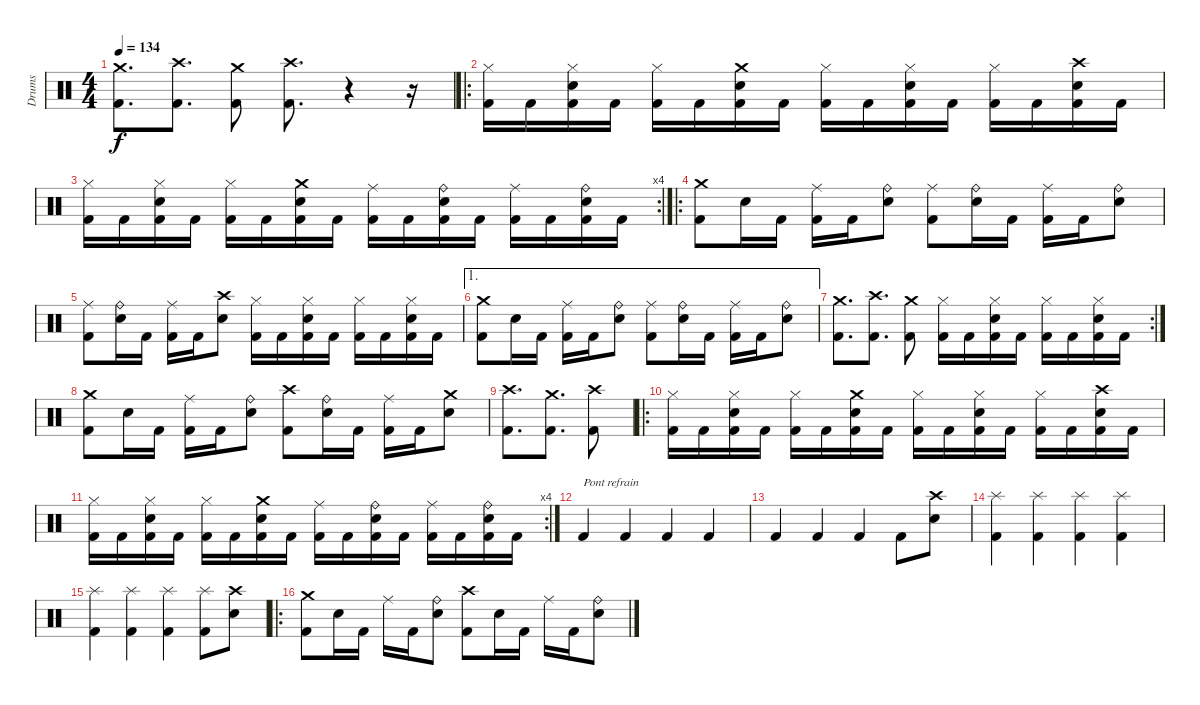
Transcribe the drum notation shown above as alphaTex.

\track ("Drums" "Drums") {instrument percussion}
\staff {score}
\articulation defaults
\ts (4 4)
\tempo 134
\clef neutral
\ks c
("Crash medium (hit)" "Kick (hit) 2").8{d dy f} ("Crash high (hit)" "Kick (hit) 2").8{d} ("Crash medium (hit)" "Kick (hit) 2").8 ("Crash high (hit)" "Kick (hit) 2").8{d} r.4 r.16 |
\ro
("Hi-Hat (closed)" "Kick (hit) 2").16 "Kick (hit) 2".16 ("Hi-Hat (closed)" "Electric Snare (hit)" "Kick (hit) 2").16 "Kick (hit) 2".16 ("Hi-Hat (closed)" "Kick (hit) 2").16 "Kick (hit) 2".16 ("Crash medium (hit)" "Electric Snare (hit)" "Kick (hit) 2").16 "Kick (hit) 2".16 ("Hi-Hat (closed)" "Kick (hit) 2").16 "Kick (hit) 2".16 ("Hi-Hat (closed)" "Electric Snare (hit)" "Kick (hit) 2").16 "Kick (hit) 2".16 ("Hi-Hat (closed)" "Kick (hit) 2").16 "Kick (hit) 2".16 ("Crash high (hit)" "Electric Snare (hit)" "Kick (hit) 2").16 "Kick (hit) 2".16 |
\rc 4
("Hi-Hat (closed)" "Kick (hit) 2").16 "Kick (hit) 2".16 ("Hi-Hat (closed)" "Electric Snare (hit)" "Kick (hit) 2").16 "Kick (hit) 2".16 ("Hi-Hat (closed)" "Kick (hit) 2").16 "Kick (hit) 2".16 ("Crash medium (hit)" "Electric Snare (hit)" "Kick (hit) 2").16 "Kick (hit) 2".16 ("Ride (middle)" "Kick (hit) 2").16 "Kick (hit) 2".16 ("Ride (bell)" "Electric Snare (hit)" "Kick (hit) 2").16 "Kick (hit) 2".16 ("Ride (middle)" "Kick (hit) 2").16 "Kick (hit) 2".16 ("Ride (bell)" "Electric Snare (hit)" "Kick (hit) 2").16 "Kick (hit) 2".16 |
\ro
("Crash medium (hit)" "Kick (hit) 2").8 "Electric Snare (hit)".16 "Kick (hit) 2".16 ("Ride (middle)" "Kick (hit) 2").16 "Kick (hit) 2".16 ("Ride (bell)" "Electric Snare (hit)").8 ("Ride (middle)" "Kick (hit) 2").8 ("Ride (bell)" "Electric Snare (hit)").16 "Kick (hit) 2".16 ("Ride (middle)" "Kick (hit) 2").16 "Kick (hit) 2".16 ("Ride (bell)" "Electric Snare (hit)").8 |
("Ride (middle)" "Kick (hit) 2").8 ("Ride (bell)" "Electric Snare (hit)").16 "Kick (hit) 2".16 ("Ride (middle)" "Kick (hit) 2").16 "Kick (hit) 2".16 ("Crash high (hit)" "Electric Snare (hit)").8 ("Hi-Hat (closed)" "Kick (hit) 2").16 "Kick (hit) 2".16 ("Hi-Hat (closed)" "Electric Snare (hit)" "Kick (hit) 2").16 "Kick (hit) 2".16 ("Hi-Hat (closed)" "Kick (hit) 2").16 "Kick (hit) 2".16 ("Hi-Hat (closed)" "Electric Snare (hit)" "Kick (hit) 2").16 "Kick (hit) 2".16 |
\ae 1
("Crash medium (hit)" "Kick (hit) 2").8 "Electric Snare (hit)".16 "Kick (hit) 2".16 ("Ride (middle)" "Kick (hit) 2").16 "Kick (hit) 2".16 ("Ride (bell)" "Electric Snare (hit)").8 ("Ride (middle)" "Kick (hit) 2").8 ("Ride (bell)" "Electric Snare (hit)").16 "Kick (hit) 2".16 ("Ride (middle)" "Kick (hit) 2").16 "Kick (hit) 2".16 ("Ride (bell)" "Electric Snare (hit)").8 |
\rc 2
("Crash medium (hit)" "Kick (hit) 2").8{d} ("Crash high (hit)" "Kick (hit) 2").8{d} ("Crash medium (hit)" "Kick (hit) 2").8 ("Hi-Hat (closed)" "Kick (hit) 2").16 "Kick (hit) 2".16 ("Hi-Hat (closed)" "Electric Snare (hit)" "Kick (hit) 2").16 "Kick (hit) 2".16 ("Hi-Hat (closed)" "Kick (hit) 2").16 "Kick (hit) 2".16 ("Hi-Hat (closed)" "Electric Snare (hit)" "Kick (hit) 2").16 "Kick (hit) 2".16 |
("Crash medium (hit)" "Kick (hit) 2").8 "Electric Snare (hit)".16 "Kick (hit) 2".16 ("Ride (middle)" "Kick (hit) 2").16 "Kick (hit) 2".16 ("Ride (bell)" "Electric Snare (hit)").8 ("Crash high (hit)" "Kick (hit) 2").8 ("Ride (bell)" "Electric Snare (hit)").16 "Kick (hit) 2".16 ("Ride (middle)" "Kick (hit) 2").16 "Kick (hit) 2".16 ("Crash medium (hit)" "Electric Snare (hit)").8 |
("Crash high (hit)" "Kick (hit) 2").8{d} ("Crash medium (hit)" "Kick (hit) 2").8{d} ("Crash high (hit)" "Kick (hit) 2").8 |
\ro
("Hi-Hat (closed)" "Kick (hit) 2").16 "Kick (hit) 2".16 ("Hi-Hat (closed)" "Electric Snare (hit)" "Kick (hit) 2").16 "Kick (hit) 2".16 ("Hi-Hat (closed)" "Kick (hit) 2").16 "Kick (hit) 2".16 ("Crash medium (hit)" "Electric Snare (hit)" "Kick (hit) 2").16 "Kick (hit) 2".16 ("Hi-Hat (closed)" "Kick (hit) 2").16 "Kick (hit) 2".16 ("Hi-Hat (closed)" "Electric Snare (hit)" "Kick (hit) 2").16 "Kick (hit) 2".16 ("Hi-Hat (closed)" "Kick (hit) 2").16 "Kick (hit) 2".16 ("Crash high (hit)" "Electric Snare (hit)" "Kick (hit) 2").16 "Kick (hit) 2".16 |
\rc 4
("Hi-Hat (closed)" "Kick (hit) 2").16 "Kick (hit) 2".16 ("Hi-Hat (closed)" "Electric Snare (hit)" "Kick (hit) 2").16 "Kick (hit) 2".16 ("Hi-Hat (closed)" "Kick (hit) 2").16 "Kick (hit) 2".16 ("Crash medium (hit)" "Electric Snare (hit)" "Kick (hit) 2").16 "Kick (hit) 2".16 ("Ride (middle)" "Kick (hit) 2").16 "Kick (hit) 2".16 ("Ride (bell)" "Electric Snare (hit)" "Kick (hit) 2").16 "Kick (hit) 2".16 ("Ride (middle)" "Kick (hit) 2").16 "Kick (hit) 2".16 ("Ride (bell)" "Electric Snare (hit)" "Kick (hit) 2").16 "Kick (hit) 2".16 |
"Kick (hit) 2".4{txt "Pont refrain"} "Kick (hit) 2".4 "Kick (hit) 2".4 "Kick (hit) 2".4 |
"Kick (hit) 2".4 "Kick (hit) 2".4 "Kick (hit) 2".4 "Kick (hit) 2".8 ("Crash high (hit)" "Electric Snare (hit)").8 |
("Splash (hit)" "Kick (hit) 2").4 ("Splash (hit)" "Kick (hit) 2").4 ("Splash (hit)" "Kick (hit) 2").4 ("Splash (hit)" "Kick (hit) 2").4 |
("Splash (hit)" "Kick (hit) 2").4 ("Splash (hit)" "Kick (hit) 2").4 ("Splash (hit)" "Kick (hit) 2").4 ("Splash (hit)" "Kick (hit) 2").8 ("Crash high (hit)" "Electric Snare (hit)").8 |
\ro
("Crash medium (hit)" "Kick (hit) 2").8 "Electric Snare (hit)".16 "Kick (hit) 2".16 "Ride (middle)".16 "Kick (hit) 2".16 ("Ride (bell)" "Electric Snare (hit)").8 ("Crash high (hit)" "Kick (hit) 2").8 "Electric Snare (hit)".16 "Kick (hit) 2".16 "Ride (middle)".16 "Kick (hit) 2".16 ("Ride (bell)" "Electric Snare (hit)").8
